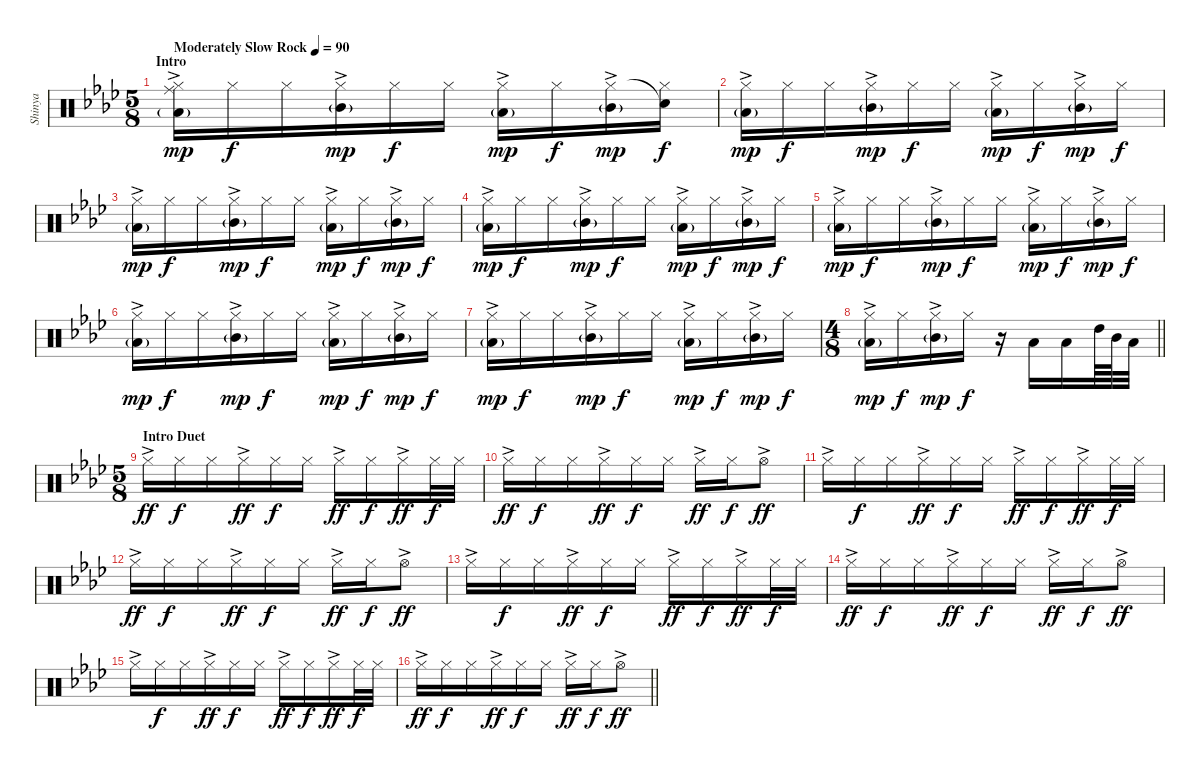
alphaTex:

\track ("Shinya" "Shinya") {instrument percussion}
\staff {score}
\articulation defaults
\ts (5 8)
\section ("" "Intro")
\tempo (90 "Moderately Slow Rock")
\clef neutral
\ks fminor
("Ride (middle)"{ac} "Hi-Hat (closed)"{ac} "Low Tom (hit)"{g}).16{dy mp} "Hi-Hat (closed)".16{dy f} "Hi-Hat (closed)".16 ("Hi-Hat (closed)"{ac} "Mid Tom (hit)"{g}).16{dy mp} "Hi-Hat (closed)".16{dy f} "Hi-Hat (closed)".16 ("Hi-Hat (closed)"{ac} "Low Tom (hit)"{g}).16{dy mp} "Hi-Hat (closed)".16{dy f} ("Hi-Hat (closed)"{ac} "Mid Tom (hit)"{g}).16{dy mp} ("Snare (hit)"{t} "Hi-Hat (closed)").16{dy f} |
("Hi-Hat (closed)"{ac} "Low Tom (hit)"{g}).16{dy mp} "Hi-Hat (closed)".16{dy f} "Hi-Hat (closed)".16 ("Hi-Hat (closed)"{ac} "Mid Tom (hit)"{g}).16{dy mp} "Hi-Hat (closed)".16{dy f} "Hi-Hat (closed)".16 ("Hi-Hat (closed)"{ac} "Low Tom (hit)"{g}).16{dy mp} "Hi-Hat (closed)".16{dy f} ("Hi-Hat (closed)"{ac} "Mid Tom (hit)"{g}).16{dy mp} "Hi-Hat (closed)".16{dy f} |
("Hi-Hat (closed)"{ac} "Low Tom (hit)"{g}).16{dy mp} "Hi-Hat (closed)".16{dy f} "Hi-Hat (closed)".16 ("Hi-Hat (closed)"{ac} "Mid Tom (hit)"{g}).16{dy mp} "Hi-Hat (closed)".16{dy f} "Hi-Hat (closed)".16 ("Hi-Hat (closed)"{ac} "Low Tom (hit)"{g}).16{dy mp} "Hi-Hat (closed)".16{dy f} ("Hi-Hat (closed)"{ac} "Mid Tom (hit)"{g}).16{dy mp} "Hi-Hat (closed)".16{dy f} |
("Hi-Hat (closed)"{ac} "Low Tom (hit)"{g}).16{dy mp} "Hi-Hat (closed)".16{dy f} "Hi-Hat (closed)".16 ("Hi-Hat (closed)"{ac} "Mid Tom (hit)"{g}).16{dy mp} "Hi-Hat (closed)".16{dy f} "Hi-Hat (closed)".16 ("Hi-Hat (closed)"{ac} "Low Tom (hit)"{g}).16{dy mp} "Hi-Hat (closed)".16{dy f} ("Hi-Hat (closed)"{ac} "Mid Tom (hit)"{g}).16{dy mp} "Hi-Hat (closed)".16{dy f} |
("Hi-Hat (closed)"{ac} "Low Tom (hit)"{g}).16{dy mp} "Hi-Hat (closed)".16{dy f} "Hi-Hat (closed)".16 ("Hi-Hat (closed)"{ac} "Mid Tom (hit)"{g}).16{dy mp} "Hi-Hat (closed)".16{dy f} "Hi-Hat (closed)".16 ("Hi-Hat (closed)"{ac} "Low Tom (hit)"{g}).16{dy mp} "Hi-Hat (closed)".16{dy f} ("Hi-Hat (closed)"{ac} "Mid Tom (hit)"{g}).16{dy mp} "Hi-Hat (closed)".16{dy f} |
("Hi-Hat (closed)"{ac} "Low Tom (hit)"{g}).16{dy mp} "Hi-Hat (closed)".16{dy f} "Hi-Hat (closed)".16 ("Hi-Hat (closed)"{ac} "Mid Tom (hit)"{g}).16{dy mp} "Hi-Hat (closed)".16{dy f} "Hi-Hat (closed)".16 ("Hi-Hat (closed)"{ac} "Low Tom (hit)"{g}).16{dy mp} "Hi-Hat (closed)".16{dy f} ("Hi-Hat (closed)"{ac} "Mid Tom (hit)"{g}).16{dy mp} "Hi-Hat (closed)".16{dy f} |
("Hi-Hat (closed)"{ac} "Low Tom (hit)"{g}).16{dy mp} "Hi-Hat (closed)".16{dy f} "Hi-Hat (closed)".16 ("Hi-Hat (closed)"{ac} "Mid Tom (hit)"{g}).16{dy mp} "Hi-Hat (closed)".16{dy f} "Hi-Hat (closed)".16 ("Hi-Hat (closed)"{ac} "Low Tom (hit)"{g}).16{dy mp} "Hi-Hat (closed)".16{dy f} ("Hi-Hat (closed)"{ac} "Mid Tom (hit)"{g}).16{dy mp} "Hi-Hat (closed)".16{dy f} |
\ts (4 8)
\barLineRight lightlight
("Hi-Hat (closed)"{ac} "Low Tom (hit)"{g}).16{dy mp} "Hi-Hat (closed)".16{dy f} ("Hi-Hat (closed)"{ac} "Mid Tom (hit)"{g}).16{dy mp} "Hi-Hat (closed)".16{dy f} r.16 "Low Tom (hit)".16 "Low Tom (hit)".16 "High Tom (hit)".64 "Mid Tom (hit)".64 "Low Tom (hit)".32 |
\ts (5 8)
\section ("" "Intro Duet")
"Hi-Hat (closed)"{ac}.16{dy ff} "Hi-Hat (closed)".16{dy f} "Hi-Hat (closed)".16 "Hi-Hat (closed)"{ac}.16{dy ff} "Hi-Hat (closed)".16{dy f} "Hi-Hat (closed)".16 "Hi-Hat (closed)"{ac}.16{dy ff} "Hi-Hat (closed)".16{dy f} "Hi-Hat (closed)"{ac}.16{dy ff} "Hi-Hat (closed)".32{dy f} "Hi-Hat (closed)".32 |
"Hi-Hat (closed)"{ac}.16{dy ff} "Hi-Hat (closed)".16{dy f} "Hi-Hat (closed)".16 "Hi-Hat (closed)"{ac}.16{dy ff} "Hi-Hat (closed)".16{dy f} "Hi-Hat (closed)".16 "Hi-Hat (closed)"{ac}.16{dy ff} "Hi-Hat (closed)".16{dy f} "Hi-Hat (open)"{ac}.8{dy ff} |
"Hi-Hat (closed)"{ac}.16 "Hi-Hat (closed)".16{dy f} "Hi-Hat (closed)".16 "Hi-Hat (closed)"{ac}.16{dy ff} "Hi-Hat (closed)".16{dy f} "Hi-Hat (closed)".16 "Hi-Hat (closed)"{ac}.16{dy ff} "Hi-Hat (closed)".16{dy f} "Hi-Hat (closed)"{ac}.16{dy ff} "Hi-Hat (closed)".32{dy f} "Hi-Hat (closed)".32 |
"Hi-Hat (closed)"{ac}.16{dy ff} "Hi-Hat (closed)".16{dy f} "Hi-Hat (closed)".16 "Hi-Hat (closed)"{ac}.16{dy ff} "Hi-Hat (closed)".16{dy f} "Hi-Hat (closed)".16 "Hi-Hat (closed)"{ac}.16{dy ff} "Hi-Hat (closed)".16{dy f} "Hi-Hat (open)"{ac}.8{dy ff} |
"Hi-Hat (closed)"{ac}.16 "Hi-Hat (closed)".16{dy f} "Hi-Hat (closed)".16 "Hi-Hat (closed)"{ac}.16{dy ff} "Hi-Hat (closed)".16{dy f} "Hi-Hat (closed)".16 "Hi-Hat (closed)"{ac}.16{dy ff} "Hi-Hat (closed)".16{dy f} "Hi-Hat (closed)"{ac}.16{dy ff} "Hi-Hat (closed)".32{dy f} "Hi-Hat (closed)".32 |
"Hi-Hat (closed)"{ac}.16{dy ff} "Hi-Hat (closed)".16{dy f} "Hi-Hat (closed)".16 "Hi-Hat (closed)"{ac}.16{dy ff} "Hi-Hat (closed)".16{dy f} "Hi-Hat (closed)".16 "Hi-Hat (closed)"{ac}.16{dy ff} "Hi-Hat (closed)".16{dy f} "Hi-Hat (open)"{ac}.8{dy ff} |
"Hi-Hat (closed)"{ac}.16 "Hi-Hat (closed)".16{dy f} "Hi-Hat (closed)".16 "Hi-Hat (closed)"{ac}.16{dy ff} "Hi-Hat (closed)".16{dy f} "Hi-Hat (closed)".16 "Hi-Hat (closed)"{ac}.16{dy ff} "Hi-Hat (closed)".16{dy f} "Hi-Hat (closed)"{ac}.16{dy ff} "Hi-Hat (closed)".32{dy f} "Hi-Hat (closed)".32 |
\barLineRight lightlight "Hi-Hat (closed)"{ac}.16{dy ff} "Hi-Hat (closed)".16{dy f} "Hi-Hat (closed)".16 "Hi-Hat (closed)"{ac}.16{dy ff} "Hi-Hat (closed)".16{dy f} "Hi-Hat (closed)".16 "Hi-Hat (closed)"{ac}.16{dy ff} "Hi-Hat (closed)".16{dy f} "Hi-Hat (open)"{ac}.8{dy ff}
